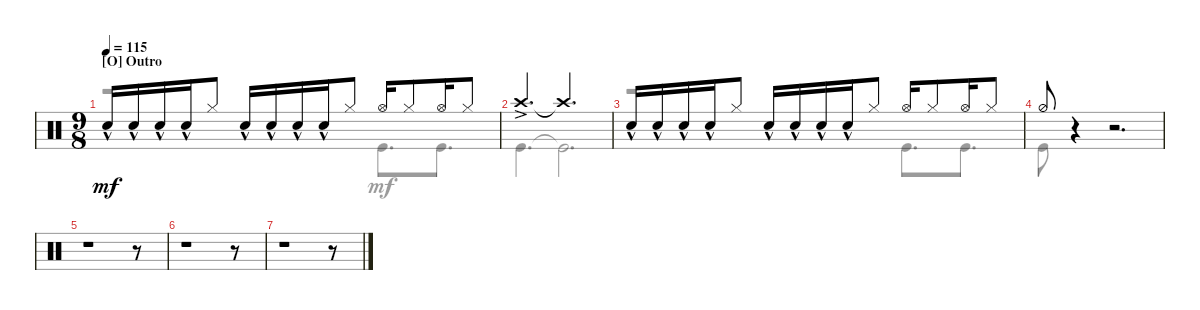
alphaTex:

\defaultSystemsLayout 4
\bracketExtendMode groupsimilarinstruments
\singleTrackTrackNamePolicy hidden
\multiTrackTrackNamePolicy hidden
\firstSystemTrackNameOrientation horizontal
\otherSystemsTrackNameOrientation horizontal
\track ("Maksim Udalov" "Drums") {instrument percussion}
\staff {score}
\articulation defaults
\voice
\ts (9 8)
\section ("O" "Outro")
\tempo 115
\clef neutral
\scale
1.05675
\ks c "Snare (hit) 2"{hac}.16{dy mf} "Snare (hit) 2"{hac}.16 "Snare (hit) 2"{hac}.16 "Snare (hit) 2"{hac}.16 "Hi-Hat (closed)".8 "Snare (hit) 2"{hac}.16 "Snare (hit) 2"{hac}.16 "Snare (hit) 2"{hac}.16 "Snare (hit) 2"{hac}.16 "Hi-Hat (closed)".8 "Hi-Hat (open)".16 "Hi-Hat (closed)".8 "Hi-Hat (open)".16 "Hi-Hat (closed)".8
|
\scale
0.943253 "Crash high (hit)"{ac}.4{d} "Crash high (hit)"{t}.2{d} |
\scale
1.02648 "Snare (hit) 2"{hac}.16 "Snare (hit) 2"{hac}.16 "Snare (hit) 2"{hac}.16 "Snare (hit) 2"{hac}.16 "Hi-Hat (closed)".8 "Snare (hit) 2"{hac}.16 "Snare (hit) 2"{hac}.16 "Snare (hit) 2"{hac}.16 "Snare (hit) 2"{hac}.16 "Hi-Hat (closed)".8 "Hi-Hat (open)".16 "Hi-Hat (closed)".8 "Hi-Hat (open)".16 "Hi-Hat (closed)".8 |
\scale
0.973518 "Hi-Hat (half)".8 r.4 r.2{d} |
\scale
1.02648 r.1 r.8 |
\scale
0.973518 r.1 r.8 |
r.1 r.8
\voice
\clef neutral
\ottava regular
\simile none
\scale
1.05675
\ks c
r.2{d dy mf} "Kick (hit)".8{d} "Kick (hit)".8{d} |
\scale
0.943253 "Kick (hit)".4{d} "Kick (hit)"{t}.2{d} |
\scale
1.02648 r.2{d} "Kick (hit)".8{d} "Kick (hit)".8{d} |
\scale
0.973518 "Kick (hit)".8 r.4 r.2{d} |
\scale
1.02648 |
\scale
0.973518 |
